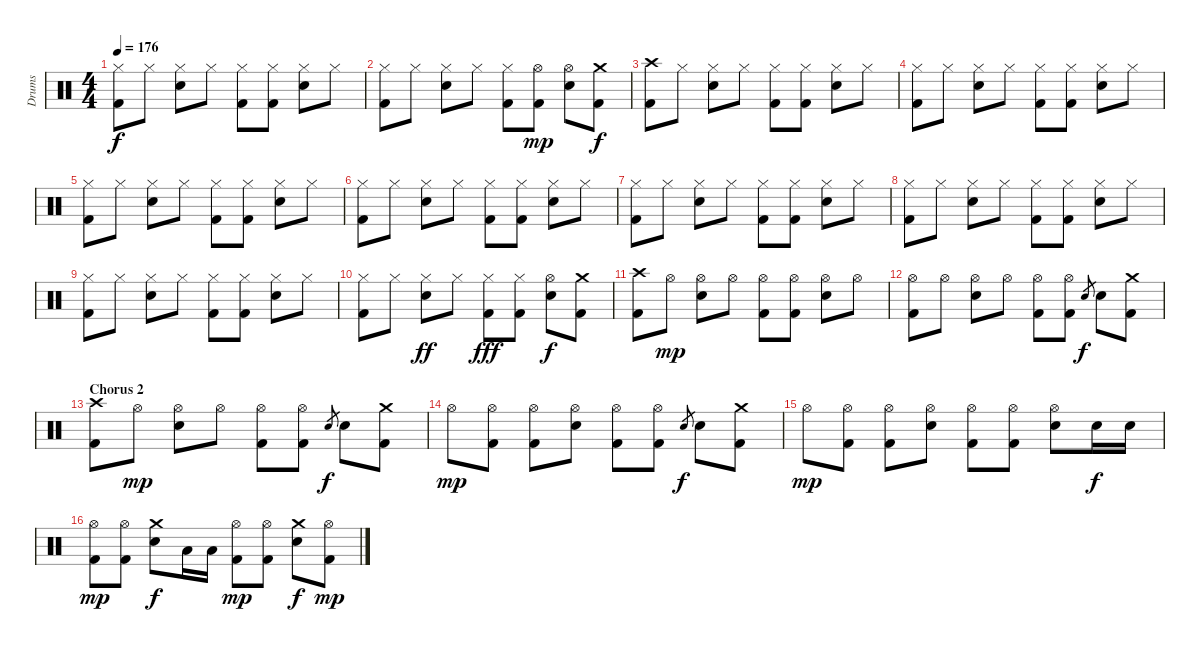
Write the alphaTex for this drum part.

\track ("Drums" "Drums") {instrument percussion}
\staff {score}
\articulation defaults
\ts (4 4)
\tempo 176
\clef neutral
\ks c
("Hi-Hat (closed)" "Kick (hit) 2").8{dy f} "Hi-Hat (closed)".8 ("Hi-Hat (closed)" "Electric Snare (hit)").8 "Hi-Hat (closed)".8 ("Hi-Hat (closed)" "Kick (hit) 2").8 ("Hi-Hat (closed)" "Kick (hit) 2").8 ("Hi-Hat (closed)" "Electric Snare (hit)").8 "Hi-Hat (closed)".8 |
("Hi-Hat (closed)" "Kick (hit) 2").8 "Hi-Hat (closed)".8 ("Hi-Hat (closed)" "Electric Snare (hit)").8 "Hi-Hat (closed)".8 ("Hi-Hat (closed)" "Kick (hit) 2").8 ("Hi-Hat (open)" "Kick (hit) 2").8{dy mp} ("Hi-Hat (open)" "Electric Snare (hit)").8 ("Crash medium (hit)" "Kick (hit) 2").8{dy f} |
("Crash high (hit)" "Kick (hit) 2").8 "Hi-Hat (closed)".8 ("Hi-Hat (closed)" "Electric Snare (hit)").8 "Hi-Hat (closed)".8 ("Hi-Hat (closed)" "Kick (hit) 2").8 ("Hi-Hat (closed)" "Kick (hit) 2").8 ("Hi-Hat (closed)" "Electric Snare (hit)").8 "Hi-Hat (closed)".8 |
("Hi-Hat (closed)" "Kick (hit) 2").8 "Hi-Hat (closed)".8 ("Hi-Hat (closed)" "Electric Snare (hit)").8 "Hi-Hat (closed)".8 ("Hi-Hat (closed)" "Kick (hit) 2").8 ("Hi-Hat (closed)" "Kick (hit) 2").8 ("Hi-Hat (closed)" "Electric Snare (hit)").8 "Hi-Hat (closed)".8 |
("Hi-Hat (closed)" "Kick (hit) 2").8 "Hi-Hat (closed)".8 ("Hi-Hat (closed)" "Electric Snare (hit)").8 "Hi-Hat (closed)".8 ("Hi-Hat (closed)" "Kick (hit) 2").8 ("Hi-Hat (closed)" "Kick (hit) 2").8 ("Hi-Hat (closed)" "Electric Snare (hit)").8 "Hi-Hat (closed)".8 |
("Hi-Hat (closed)" "Kick (hit) 2").8 "Hi-Hat (closed)".8 ("Hi-Hat (closed)" "Electric Snare (hit)").8 "Hi-Hat (closed)".8 ("Hi-Hat (closed)" "Kick (hit) 2").8 ("Hi-Hat (closed)" "Kick (hit) 2").8 ("Hi-Hat (closed)" "Electric Snare (hit)").8 "Hi-Hat (closed)".8 |
("Hi-Hat (closed)" "Kick (hit) 2").8 "Hi-Hat (closed)".8 ("Hi-Hat (closed)" "Electric Snare (hit)").8 "Hi-Hat (closed)".8 ("Hi-Hat (closed)" "Kick (hit) 2").8 ("Hi-Hat (closed)" "Kick (hit) 2").8 ("Hi-Hat (closed)" "Electric Snare (hit)").8 "Hi-Hat (closed)".8 |
("Hi-Hat (closed)" "Kick (hit) 2").8 "Hi-Hat (closed)".8 ("Hi-Hat (closed)" "Electric Snare (hit)").8 "Hi-Hat (closed)".8 ("Hi-Hat (closed)" "Kick (hit) 2").8 ("Hi-Hat (closed)" "Kick (hit) 2").8 ("Hi-Hat (closed)" "Electric Snare (hit)").8 "Hi-Hat (closed)".8 |
("Hi-Hat (closed)" "Kick (hit) 2").8 "Hi-Hat (closed)".8 ("Hi-Hat (closed)" "Electric Snare (hit)").8 "Hi-Hat (closed)".8 ("Hi-Hat (closed)" "Kick (hit) 2").8 ("Hi-Hat (closed)" "Kick (hit) 2").8 ("Hi-Hat (closed)" "Electric Snare (hit)").8 "Hi-Hat (closed)".8 |
("Hi-Hat (closed)" "Kick (hit) 2").8 "Hi-Hat (closed)".8 ("Hi-Hat (closed)" "Electric Snare (hit)").8{dy ff} "Hi-Hat (closed)".8 ("Hi-Hat (closed)" "Kick (hit) 2").8{dy fff} ("Hi-Hat (closed)" "Kick (hit) 2").8 ("Hi-Hat (open)" "Electric Snare (hit)").8{dy f} ("Crash medium (hit)" "Kick (hit) 2").8 |
("Crash high (hit)" "Kick (hit) 2").8 "Hi-Hat (open)".8{dy mp} ("Hi-Hat (open)" "Electric Snare (hit)").8 "Hi-Hat (open)".8 ("Hi-Hat (open)" "Kick (hit) 2").8 ("Hi-Hat (open)" "Kick (hit) 2").8 ("Hi-Hat (open)" "Electric Snare (hit)").8 "Hi-Hat (open)".8 |
("Hi-Hat (open)" "Kick (hit) 2").8 "Hi-Hat (open)".8 ("Hi-Hat (open)" "Electric Snare (hit)").8 "Hi-Hat (open)".8 ("Hi-Hat (open)" "Kick (hit) 2").8 ("Hi-Hat (open)" "Kick (hit) 2").8 "Electric Snare (hit)".8{gr dy f} "Electric Snare (hit)".8 ("Crash medium (hit)" "Kick (hit) 2").8 |
\section ("" "Chorus 2")
("Crash high (hit)" "Kick (hit) 2").8 "Hi-Hat (open)".8{dy mp} ("Hi-Hat (open)" "Electric Snare (hit)").8 "Hi-Hat (open)".8 ("Hi-Hat (open)" "Kick (hit) 2").8 ("Hi-Hat (open)" "Kick (hit) 2").8 "Electric Snare (hit)".8{gr dy f} "Electric Snare (hit)".8 ("Crash medium (hit)" "Kick (hit) 2").8 |
"Hi-Hat (open)".8{dy mp} ("Hi-Hat (open)" "Kick (hit) 2").8 ("Hi-Hat (open)" "Kick (hit) 2").8 ("Hi-Hat (open)" "Electric Snare (hit)").8 ("Hi-Hat (open)" "Kick (hit) 2").8 ("Hi-Hat (open)" "Kick (hit) 2").8 "Electric Snare (hit)".8{gr dy f} "Electric Snare (hit)".8 ("Crash medium (hit)" "Kick (hit) 2").8 |
"Hi-Hat (open)".8{dy mp} ("Hi-Hat (open)" "Kick (hit) 2").8 ("Hi-Hat (open)" "Kick (hit) 2").8 ("Hi-Hat (open)" "Electric Snare (hit)").8 ("Hi-Hat (open)" "Kick (hit) 2").8 ("Hi-Hat (open)" "Kick (hit) 2").8 ("Hi-Hat (open)" "Electric Snare (hit)").8 "Electric Snare (hit)".16{dy f} "Electric Snare (hit)".16 |
("Hi-Hat (open)" "Kick (hit) 2").8{dy mp} ("Hi-Hat (open)" "Kick (hit) 2").8 ("Crash medium (hit)" "Electric Snare (hit)").8{dy f} "Low Tom (hit)".16 "Low Tom (hit)".16 ("Hi-Hat (open)" "Kick (hit) 2").8{dy mp} ("Hi-Hat (open)" "Kick (hit) 2").8 ("Crash medium (hit)" "Electric Snare (hit)").8{dy f} ("Hi-Hat (open)" "Kick (hit) 2").8{dy mp}
